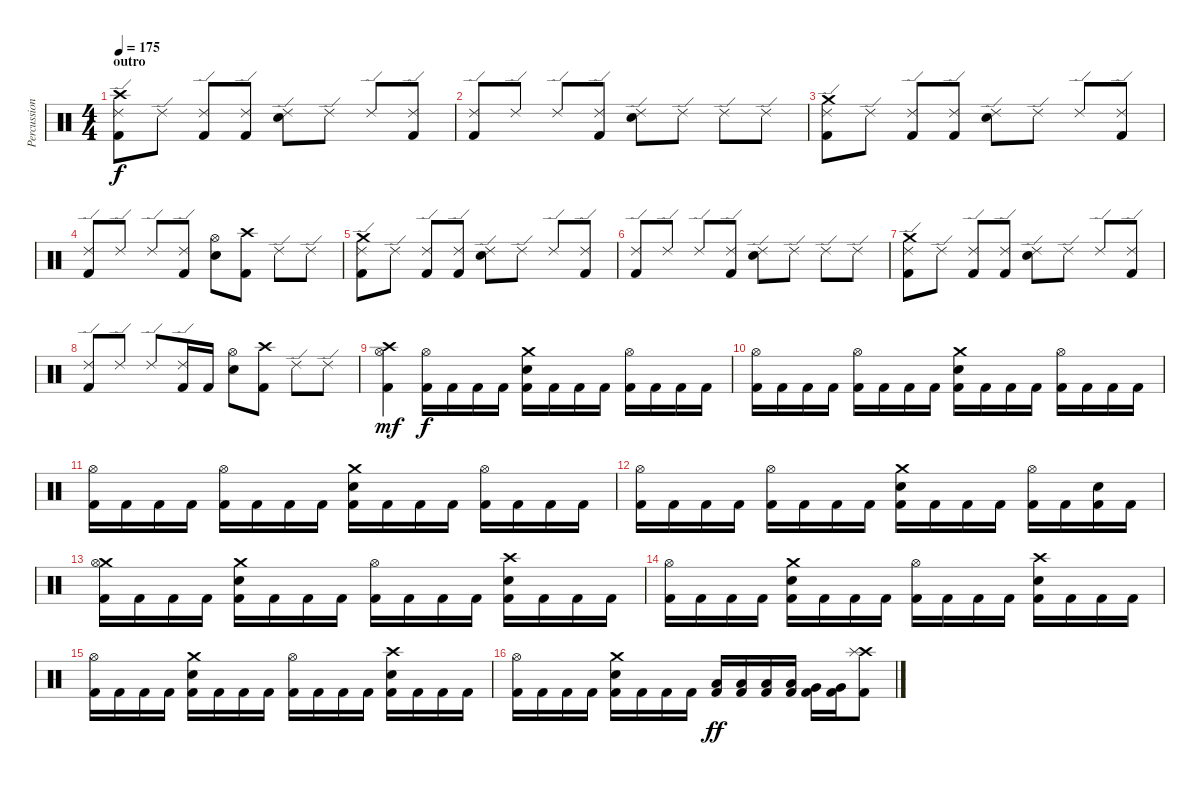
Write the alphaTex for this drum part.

\track ("Percussion" "Percussion") {instrument percussion}
\staff {score}
\articulation defaults
\ts (4 4)
\section ("" "outro")
\tempo 175
\clef neutral
\ks c
("Crash high (hit)" "Ride (edge) 2" "Kick (hit) 2").8{dy f} "Ride (edge) 2".8 ("Ride (edge) 2" "Kick (hit) 2").8 ("Ride (edge) 2" "Kick (hit) 2").8 ("Electric Snare (hit)" "Ride (edge) 2").8 "Ride (edge) 2".8 "Ride (edge) 2".8 ("Ride (edge) 2" "Kick (hit) 2").8 |
("Ride (edge) 2" "Kick (hit) 2").8 "Ride (edge) 2".8 "Ride (edge) 2".8 ("Ride (edge) 2" "Kick (hit) 2").8 ("Electric Snare (hit)" "Ride (edge) 2").8 "Ride (edge) 2".8 "Ride (edge) 2".8 "Ride (edge) 2".8 |
("Crash medium (hit)" "Ride (edge) 2" "Kick (hit) 2").8 "Ride (edge) 2".8 ("Ride (edge) 2" "Kick (hit) 2").8 ("Ride (edge) 2" "Kick (hit) 2").8 ("Electric Snare (hit)" "Ride (edge) 2").8 "Ride (edge) 2".8 "Ride (edge) 2".8 ("Ride (edge) 2" "Kick (hit) 2").8 |
("Ride (edge) 2" "Kick (hit) 2").8 "Ride (edge) 2".8 "Ride (edge) 2".8 ("Ride (edge) 2" "Kick (hit) 2").8 ("Electric Snare (hit)" "Hi-Hat (open)").8 ("Crash high (hit)" "Kick (hit) 2").8 "Ride (edge) 2".8 "Ride (edge) 2".8 |
("Crash medium (hit)" "Ride (edge) 2" "Kick (hit) 2").8 "Ride (edge) 2".8 ("Ride (edge) 2" "Kick (hit) 2").8 ("Ride (edge) 2" "Kick (hit) 2").8 ("Electric Snare (hit)" "Ride (edge) 2").8 "Ride (edge) 2".8 "Ride (edge) 2".8 ("Ride (edge) 2" "Kick (hit) 2").8 |
("Ride (edge) 2" "Kick (hit) 2").8 "Ride (edge) 2".8 "Ride (edge) 2".8 ("Ride (edge) 2" "Kick (hit) 2").8 ("Electric Snare (hit)" "Ride (edge) 2").8 "Ride (edge) 2".8 "Ride (edge) 2".8 "Ride (edge) 2".8 |
("Crash medium (hit)" "Ride (edge) 2" "Kick (hit) 2").8 "Ride (edge) 2".8 ("Ride (edge) 2" "Kick (hit) 2").8 ("Ride (edge) 2" "Kick (hit) 2").8 ("Electric Snare (hit)" "Ride (edge) 2").8 "Ride (edge) 2".8 "Ride (edge) 2".8 ("Ride (edge) 2" "Kick (hit) 2").8 |
("Ride (edge) 2" "Kick (hit) 2").8 "Ride (edge) 2".8 "Ride (edge) 2".8 ("Ride (edge) 2" "Kick (hit) 2").16 "Kick (hit) 2".16 ("Electric Snare (hit)" "Hi-Hat (open)").8 ("Crash high (hit)" "Kick (hit) 2").8 "Ride (edge) 2".8 "Ride (edge) 2".8 |
("Crash high (hit)" "Hi-Hat (open)" "Kick (hit) 2").4{dy mf} ("Hi-Hat (open)" "Kick (hit) 2").16{dy f} "Kick (hit) 2".16 "Kick (hit) 2".16 "Kick (hit) 2".16 ("Electric Snare (hit)" "Crash medium (hit)" "Kick (hit) 2").16 "Kick (hit) 2".16 "Kick (hit) 2".16 "Kick (hit) 2".16 ("Hi-Hat (open)" "Kick (hit) 2").16 "Kick (hit) 2".16 "Kick (hit) 2".16 "Kick (hit) 2".16 |
("Hi-Hat (open)" "Kick (hit) 2").16 "Kick (hit) 2".16 "Kick (hit) 2".16 "Kick (hit) 2".16 ("Hi-Hat (open)" "Kick (hit) 2").16 "Kick (hit) 2".16 "Kick (hit) 2".16 "Kick (hit) 2".16 ("Electric Snare (hit)" "Crash medium (hit)" "Kick (hit) 2").16 "Kick (hit) 2".16 "Kick (hit) 2".16 "Kick (hit) 2".16 ("Hi-Hat (open)" "Kick (hit) 2").16 "Kick (hit) 2".16 "Kick (hit) 2".16 "Kick (hit) 2".16 |
("Hi-Hat (open)" "Kick (hit) 2").16 "Kick (hit) 2".16 "Kick (hit) 2".16 "Kick (hit) 2".16 ("Hi-Hat (open)" "Kick (hit) 2").16 "Kick (hit) 2".16 "Kick (hit) 2".16 "Kick (hit) 2".16 ("Electric Snare (hit)" "Crash medium (hit)" "Kick (hit) 2").16 "Kick (hit) 2".16 "Kick (hit) 2".16 "Kick (hit) 2".16 ("Hi-Hat (open)" "Kick (hit) 2").16 "Kick (hit) 2".16 "Kick (hit) 2".16 "Kick (hit) 2".16 |
("Hi-Hat (open)" "Kick (hit) 2").16 "Kick (hit) 2".16 "Kick (hit) 2".16 "Kick (hit) 2".16 ("Hi-Hat (open)" "Kick (hit) 2").16 "Kick (hit) 2".16 "Kick (hit) 2".16 "Kick (hit) 2".16 ("Electric Snare (hit)" "Crash medium (hit)" "Kick (hit) 2").16 "Kick (hit) 2".16 "Kick (hit) 2".16 "Kick (hit) 2".16 ("Hi-Hat (open)" "Kick (hit) 2").16 "Kick (hit) 2".16 ("Electric Snare (hit)" "Kick (hit) 2").16 "Kick (hit) 2".16 |
("Crash medium (hit)" "Hi-Hat (open)" "Kick (hit) 2").16 "Kick (hit) 2".16 "Kick (hit) 2".16 "Kick (hit) 2".16 ("Electric Snare (hit)" "Crash medium (hit)" "Kick (hit) 2").16 "Kick (hit) 2".16 "Kick (hit) 2".16 "Kick (hit) 2".16 ("Hi-Hat (open)" "Kick (hit) 2").16 "Kick (hit) 2".16 "Kick (hit) 2".16 "Kick (hit) 2".16 ("Electric Snare (hit)" "Crash high (hit)" "Kick (hit) 2").16 "Kick (hit) 2".16 "Kick (hit) 2".16 "Kick (hit) 2".16 |
("Hi-Hat (open)" "Kick (hit) 2").16 "Kick (hit) 2".16 "Kick (hit) 2".16 "Kick (hit) 2".16 ("Electric Snare (hit)" "Crash medium (hit)" "Kick (hit) 2").16 "Kick (hit) 2".16 "Kick (hit) 2".16 "Kick (hit) 2".16 ("Hi-Hat (open)" "Kick (hit) 2").16 "Kick (hit) 2".16 "Kick (hit) 2".16 "Kick (hit) 2".16 ("Electric Snare (hit)" "Crash high (hit)" "Kick (hit) 2").16 "Kick (hit) 2".16 "Kick (hit) 2".16 "Kick (hit) 2".16 |
("Hi-Hat (open)" "Kick (hit) 2").16 "Kick (hit) 2".16 "Kick (hit) 2".16 "Kick (hit) 2".16 ("Electric Snare (hit)" "Crash medium (hit)" "Kick (hit) 2").16 "Kick (hit) 2".16 "Kick (hit) 2".16 "Kick (hit) 2".16 ("Hi-Hat (open)" "Kick (hit) 2").16 "Kick (hit) 2".16 "Kick (hit) 2".16 "Kick (hit) 2".16 ("Electric Snare (hit)" "Crash high (hit)" "Kick (hit) 2").16 "Kick (hit) 2".16 "Kick (hit) 2".16 "Kick (hit) 2".16 |
("Hi-Hat (open)" "Kick (hit) 2").16 "Kick (hit) 2".16 "Kick (hit) 2".16 "Kick (hit) 2".16 ("Electric Snare (hit)" "Crash medium (hit)" "Kick (hit) 2").16 "Kick (hit) 2".16 "Kick (hit) 2".16 "Kick (hit) 2".16 ("Low Tom (hit)" "Kick (hit) 2").16{dy ff} ("Low Tom (hit)" "Kick (hit) 2").16 ("Low Tom (hit)" "Kick (hit) 2").16 ("Low Tom (hit)" "Kick (hit) 2").16 ("Very Low Tom (hit)" "Kick (hit) 2").16 ("Very Low Tom (hit)" "Kick (hit) 2").16 ("Crash high (hit)" "Splash (hit)" "Kick (hit) 2").8
